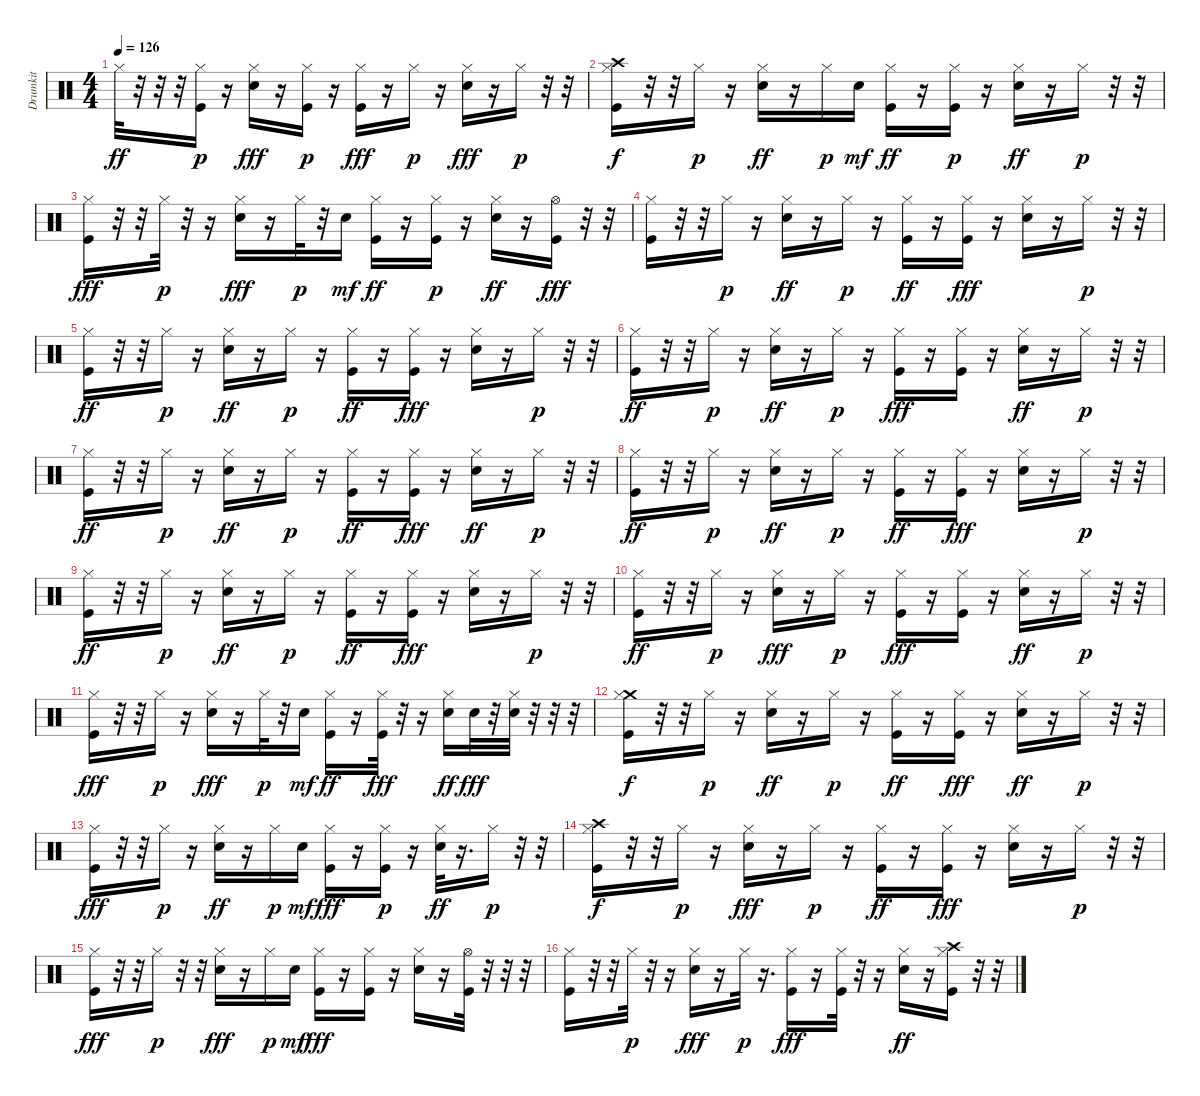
\track ("Drumkit" "Drumkit") {instrument percussion}
\staff {score}
\articulation defaults
\ts (4 4)
\tempo 126
\clef neutral
\ks c "Hi-Hat (closed)".32{dy ff}
r.32 r.32 r.32 ("Hi-Hat (closed)" "Kick (hit)").16{dy p} r.16 ("Snare (hit) 2" "Hi-Hat (closed)").16{dy fff} r.16 ("Hi-Hat (closed)" "Kick (hit)").16{dy p} r.16 ("Kick (hit)" "Hi-Hat (closed)").16{dy fff} r.16 "Hi-Hat (closed)".16{dy p} r.16 ("Snare (hit) 2" "Hi-Hat (closed)").16{dy fff} r.16 "Hi-Hat (closed)".16{dy p} r.32 r.32 |
("Crash high (hit)" "Kick (hit)" "Hi-Hat (closed)").16{dy f} r.32 r.32 "Hi-Hat (closed)".16{dy p} r.16 ("Hi-Hat (closed)" "Snare (hit) 2").16{dy ff} r.16 "Hi-Hat (closed)".16{dy p} "Snare (hit) 2".16{dy mf} ("Hi-Hat (closed)" "Kick (hit)").16{dy ff} r.16 ("Hi-Hat (closed)" "Kick (hit)").16{dy p} r.16 ("Hi-Hat (closed)" "Snare (hit) 2").16{dy ff} r.16 "Hi-Hat (closed)".16{dy p} r.32 r.32 |
("Kick (hit)" "Hi-Hat (closed)").16{dy fff} r.32 r.32 "Hi-Hat (closed)".32{dy p} r.32 r.16 ("Snare (hit) 2" "Hi-Hat (closed)").16{dy fff} r.16 "Hi-Hat (closed)".32{dy p} r.32 "Snare (hit) 2".16{dy mf} ("Hi-Hat (closed)" "Kick (hit)").16{dy ff} r.16 ("Hi-Hat (closed)" "Kick (hit)").16{dy p} r.16 ("Hi-Hat (closed)" "Snare (hit) 2").16{dy ff} r.16 ("Kick (hit)" "Hi-Hat (open)").16{dy fff} r.32 r.32 |
("Kick (hit)" "Hi-Hat (closed)").16 r.32 r.32 "Hi-Hat (closed)".16{dy p} r.16 ("Hi-Hat (closed)" "Snare (hit) 2").16{dy ff} r.16 "Hi-Hat (closed)".16{dy p} r.16 ("Hi-Hat (closed)" "Kick (hit)").16{dy ff} r.16 ("Kick (hit)" "Hi-Hat (closed)").16{dy fff} r.16 ("Snare (hit) 2" "Hi-Hat (closed)").16 r.16 "Hi-Hat (closed)".16{dy p} r.32 r.32 |
("Hi-Hat (closed)" "Kick (hit)").16{dy ff} r.32 r.32 "Hi-Hat (closed)".16{dy p} r.16 ("Hi-Hat (closed)" "Snare (hit) 2").16{dy ff} r.16 "Hi-Hat (closed)".16{dy p} r.16 ("Hi-Hat (closed)" "Kick (hit)").16{dy ff} r.16 ("Kick (hit)" "Hi-Hat (closed)").16{dy fff} r.16 ("Snare (hit) 2" "Hi-Hat (closed)").16 r.16 "Hi-Hat (closed)".16{dy p} r.32 r.32 |
("Hi-Hat (closed)" "Kick (hit)").16{dy ff} r.32 r.32 "Hi-Hat (closed)".16{dy p} r.16 ("Hi-Hat (closed)" "Snare (hit) 2").16{dy ff} r.16 "Hi-Hat (closed)".16{dy p} r.16 ("Kick (hit)" "Hi-Hat (closed)").16{dy fff} r.16 ("Kick (hit)" "Hi-Hat (closed)").16 r.16 ("Hi-Hat (closed)" "Snare (hit) 2").16{dy ff} r.16 "Hi-Hat (closed)".16{dy p} r.32 r.32 |
("Hi-Hat (closed)" "Kick (hit)").16{dy ff} r.32 r.32 "Hi-Hat (closed)".16{dy p} r.16 ("Hi-Hat (closed)" "Snare (hit) 2").16{dy ff} r.16 "Hi-Hat (closed)".16{dy p} r.16 ("Hi-Hat (closed)" "Kick (hit)").16{dy ff} r.16 ("Kick (hit)" "Hi-Hat (closed)").16{dy fff} r.16 ("Hi-Hat (closed)" "Snare (hit) 2").16{dy ff} r.16 "Hi-Hat (closed)".16{dy p} r.32 r.32 |
("Hi-Hat (closed)" "Kick (hit)").16{dy ff} r.32 r.32 "Hi-Hat (closed)".16{dy p} r.16 ("Hi-Hat (closed)" "Snare (hit) 2").16{dy ff} r.16 "Hi-Hat (closed)".16{dy p} r.16 ("Hi-Hat (closed)" "Kick (hit)").16{dy ff} r.16 ("Kick (hit)" "Hi-Hat (closed)").16{dy fff} r.16 ("Snare (hit) 2" "Hi-Hat (closed)").16 r.16 "Hi-Hat (closed)".16{dy p} r.32 r.32 |
("Hi-Hat (closed)" "Kick (hit)").16{dy ff} r.32 r.32 "Hi-Hat (closed)".16{dy p} r.16 ("Hi-Hat (closed)" "Snare (hit) 2").16{dy ff} r.16 "Hi-Hat (closed)".16{dy p} r.16 ("Hi-Hat (closed)" "Kick (hit)").16{dy ff} r.16 ("Kick (hit)" "Hi-Hat (closed)").16{dy fff} r.16 ("Snare (hit) 2" "Hi-Hat (closed)").16 r.16 "Hi-Hat (closed)".16{dy p} r.32 r.32 |
("Hi-Hat (closed)" "Kick (hit)").16{dy ff} r.32 r.32 "Hi-Hat (closed)".16{dy p} r.16 ("Snare (hit) 2" "Hi-Hat (closed)").16{dy fff} r.16 "Hi-Hat (closed)".16{dy p} r.16 ("Kick (hit)" "Hi-Hat (closed)").16{dy fff} r.16 ("Kick (hit)" "Hi-Hat (closed)").16 r.16 ("Hi-Hat (closed)" "Snare (hit) 2").16{dy ff} r.16 "Hi-Hat (closed)".16{dy p} r.32 r.32 |
("Kick (hit)" "Hi-Hat (closed)").16{dy fff} r.32 r.32 "Hi-Hat (closed)".16{dy p} r.16 ("Snare (hit) 2" "Hi-Hat (closed)").16{dy fff} r.16 "Hi-Hat (closed)".32{dy p} r.32 "Snare (hit) 2".16{dy mf} ("Hi-Hat (closed)" "Kick (hit)").16{dy ff} r.16 ("Kick (hit)" "Hi-Hat (closed)").32{dy fff} r.32 r.16 ("Hi-Hat (closed)" "Snare (hit) 2").16{dy ff} "Snare (hit) 2".32{dy fff} r.32 ("Snare (hit) 2" "Hi-Hat (closed)").32 r.32 r.32 r.32 |
("Crash medium (hit)" "Kick (hit)" "Hi-Hat (closed)").16{dy f} r.32 r.32 "Hi-Hat (closed)".16{dy p} r.16 ("Hi-Hat (closed)" "Snare (hit) 2").16{dy ff} r.16 "Hi-Hat (closed)".16{dy p} r.16 ("Hi-Hat (closed)" "Kick (hit)").16{dy ff} r.16 ("Kick (hit)" "Hi-Hat (closed)").16{dy fff} r.16 ("Hi-Hat (closed)" "Snare (hit) 2").16{dy ff} r.16 "Hi-Hat (closed)".16{dy p} r.32 r.32 |
("Kick (hit)" "Hi-Hat (closed)").16{dy fff} r.32 r.32 "Hi-Hat (closed)".16{dy p} r.16 ("Hi-Hat (closed)" "Snare (hit) 2").16{dy ff} r.16 "Hi-Hat (closed)".16{dy p} "Snare (hit) 2".16{dy mf} ("Kick (hit)" "Hi-Hat (closed)").16{dy fff} r.16 ("Hi-Hat (closed)" "Kick (hit)").16{dy p} r.16 ("Hi-Hat (closed)" "Snare (hit) 2").32{dy ff} r.16{d} "Hi-Hat (closed)".16{dy p} r.32 r.32 |
("Crash high (hit)" "Hi-Hat (closed)" "Kick (hit)").16{dy f} r.32 r.32 "Hi-Hat (closed)".16{dy p} r.16 ("Snare (hit) 2" "Hi-Hat (closed)").16{dy fff} r.16 "Hi-Hat (closed)".16{dy p} r.16 ("Hi-Hat (closed)" "Kick (hit)").16{dy ff} r.16 ("Kick (hit)" "Hi-Hat (closed)").16{dy fff} r.16 ("Snare (hit) 2" "Hi-Hat (closed)").16 r.16 "Hi-Hat (closed)".16{dy p} r.32 r.32 |
("Kick (hit)" "Hi-Hat (closed)").16{dy fff} r.32 r.32 "Hi-Hat (closed)".16{dy p} r.32 r.32 ("Snare (hit) 2" "Hi-Hat (closed)").16{dy fff} r.16 "Hi-Hat (closed)".16{dy p} "Snare (hit) 2".16{dy mf} ("Kick (hit)" "Hi-Hat (closed)").16{dy fff} r.16 ("Kick (hit)" "Hi-Hat (closed)").16 r.16 ("Snare (hit) 2" "Hi-Hat (closed)").16 r.16 ("Kick (hit)" "Hi-Hat (open)").32 r.32 r.32 r.32 |
("Kick (hit)" "Hi-Hat (closed)").16 r.32 r.32 "Hi-Hat (closed)".32{dy p} r.32 r.16 ("Snare (hit) 2" "Hi-Hat (closed)").16{dy fff} r.16 "Hi-Hat (closed)".32{dy p} r.16{d} ("Kick (hit)" "Hi-Hat (closed)").16{dy fff} r.16 ("Kick (hit)" "Hi-Hat (closed)").32 r.32 r.16 ("Hi-Hat (closed)" "Snare (hit) 2").16{dy ff} r.16 ("Crash high (hit)" "Kick (hit)" "Hi-Hat (closed)").16 r.32 r.32
